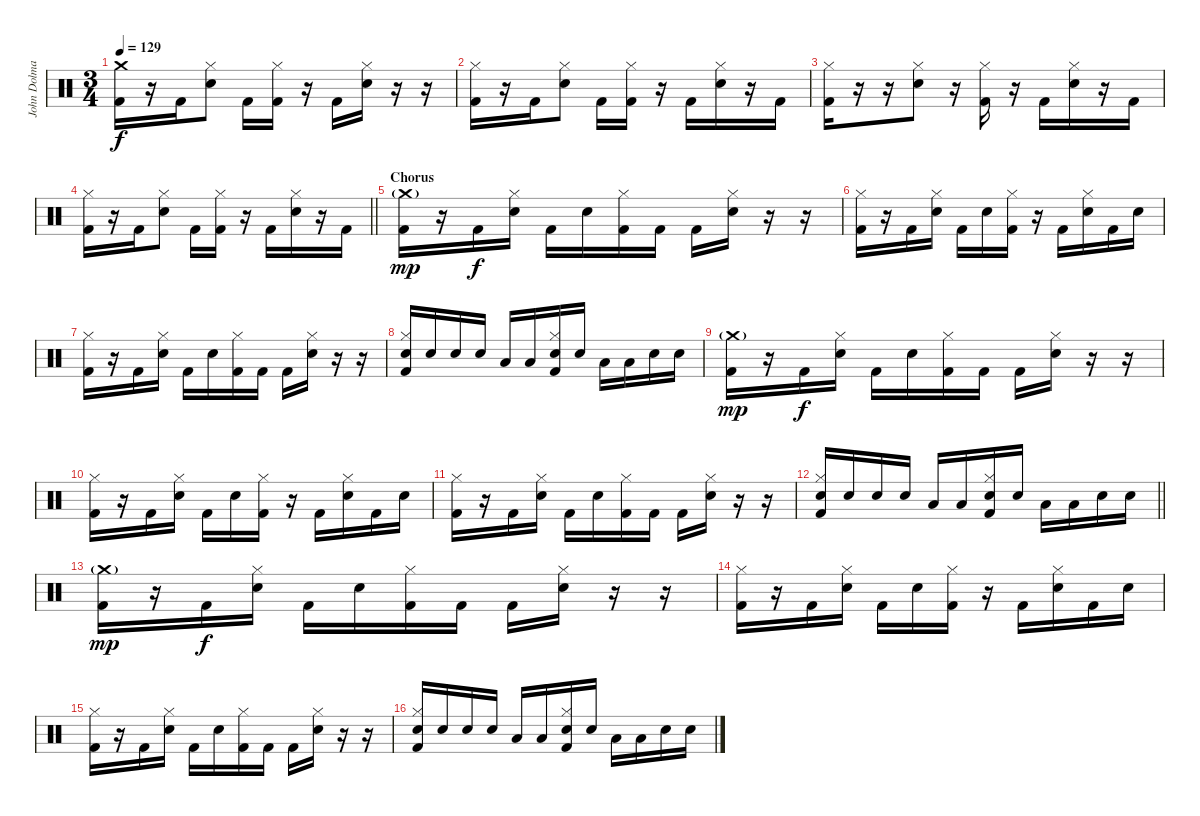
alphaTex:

\track ("John Dolmayan" "John Dolma") {instrument percussion}
\staff {score}
\articulation defaults
\ts (3 4)
\tempo 129
\clef neutral
\ks c
("Crash medium (hit)" "Kick (hit) 2").16{dy f} r.16 "Kick (hit) 2".16 ("Hi-Hat (closed)" "Electric Snare (hit)").8 "Kick (hit) 2".16 ("Hi-Hat (closed)" "Kick (hit) 2").16 r.16 "Kick (hit) 2".16 ("Hi-Hat (closed)" "Electric Snare (hit)").16 r.16 r.16 |
("Hi-Hat (closed)" "Kick (hit) 2").16 r.16 "Kick (hit) 2".16 ("Hi-Hat (closed)" "Electric Snare (hit)").8 "Kick (hit) 2".16 ("Hi-Hat (closed)" "Kick (hit) 2").16 r.16 "Kick (hit) 2".16 ("Hi-Hat (closed)" "Electric Snare (hit)").16 r.16 "Kick (hit) 2".16 |
("Hi-Hat (closed)" "Kick (hit) 2").16 r.16 r.16 ("Hi-Hat (closed)" "Electric Snare (hit)").8 r.16 ("Hi-Hat (closed)" "Kick (hit) 2").16 r.16 "Kick (hit) 2".16 ("Hi-Hat (closed)" "Electric Snare (hit)").16 r.16 "Kick (hit) 2".16 |
\barLineRight lightlight
("Hi-Hat (closed)" "Kick (hit) 2").16 r.16 "Kick (hit) 2".16 ("Hi-Hat (closed)" "Electric Snare (hit)").8 "Kick (hit) 2".16 ("Hi-Hat (closed)" "Kick (hit) 2").16 r.16 "Kick (hit) 2".16 ("Hi-Hat (closed)" "Electric Snare (hit)").16 r.16 "Kick (hit) 2".16 |
\section ("" "Chorus")
("Crash medium (hit)"{g} "Kick (hit) 2").16{dy mp} r.16 "Kick (hit) 2".16{dy f} ("Hi-Hat (closed)" "Electric Snare (hit)").16 "Kick (hit) 2".16 "Electric Snare (hit)".16 ("Hi-Hat (closed)" "Kick (hit) 2").16 "Kick (hit) 2".16 "Kick (hit) 2".16 ("Hi-Hat (closed)" "Electric Snare (hit)").16 r.16 r.16 |
("Hi-Hat (closed)" "Kick (hit) 2").16 r.16 "Kick (hit) 2".16 ("Hi-Hat (closed)" "Electric Snare (hit)").16 "Kick (hit) 2".16 "Electric Snare (hit)".16 ("Hi-Hat (closed)" "Kick (hit) 2").16 r.16 "Kick (hit) 2".16 ("Hi-Hat (closed)" "Electric Snare (hit)").16 "Kick (hit) 2".16 "Electric Snare (hit)".16 |
("Hi-Hat (closed)" "Kick (hit) 2").16 r.16 "Kick (hit) 2".16 ("Hi-Hat (closed)" "Electric Snare (hit)").16 "Kick (hit) 2".16 "Electric Snare (hit)".16 ("Hi-Hat (closed)" "Kick (hit) 2").16 "Kick (hit) 2".16 "Kick (hit) 2".16 ("Hi-Hat (closed)" "Electric Snare (hit)").16 r.16 r.16 |
("Hi-Hat (closed)" "Electric Snare (hit)" "Kick (hit) 2").16 "Electric Snare (hit)".16 "Electric Snare (hit)".16 "Electric Snare (hit)".16 "Low Tom (hit)".16 "Low Tom (hit)".16 ("Hi-Hat (closed)" "Electric Snare (hit)" "Kick (hit) 2").16 "Electric Snare (hit)".16 "Low Tom (hit)".16 "Low Tom (hit)".16 "Electric Snare (hit)".16 "Electric Snare (hit)".16 |
("Crash medium (hit)"{g} "Kick (hit) 2").16{dy mp} r.16 "Kick (hit) 2".16{dy f} ("Hi-Hat (closed)" "Electric Snare (hit)").16 "Kick (hit) 2".16 "Electric Snare (hit)".16 ("Hi-Hat (closed)" "Kick (hit) 2").16 "Kick (hit) 2".16 "Kick (hit) 2".16 ("Hi-Hat (closed)" "Electric Snare (hit)").16 r.16 r.16 |
("Hi-Hat (closed)" "Kick (hit) 2").16 r.16 "Kick (hit) 2".16 ("Hi-Hat (closed)" "Electric Snare (hit)").16 "Kick (hit) 2".16 "Electric Snare (hit)".16 ("Hi-Hat (closed)" "Kick (hit) 2").16 r.16 "Kick (hit) 2".16 ("Hi-Hat (closed)" "Electric Snare (hit)").16 "Kick (hit) 2".16 "Electric Snare (hit)".16 |
("Hi-Hat (closed)" "Kick (hit) 2").16 r.16 "Kick (hit) 2".16 ("Hi-Hat (closed)" "Electric Snare (hit)").16 "Kick (hit) 2".16 "Electric Snare (hit)".16 ("Hi-Hat (closed)" "Kick (hit) 2").16 "Kick (hit) 2".16 "Kick (hit) 2".16 ("Hi-Hat (closed)" "Electric Snare (hit)").16 r.16 r.16 |
\barLineRight lightlight
("Hi-Hat (closed)" "Electric Snare (hit)" "Kick (hit) 2").16 "Electric Snare (hit)".16 "Electric Snare (hit)".16 "Electric Snare (hit)".16 "Low Tom (hit)".16 "Low Tom (hit)".16 ("Hi-Hat (closed)" "Electric Snare (hit)" "Kick (hit) 2").16 "Electric Snare (hit)".16 "Low Tom (hit)".16 "Low Tom (hit)".16 "Electric Snare (hit)".16 "Electric Snare (hit)".16 |
("Crash medium (hit)"{g} "Kick (hit) 2").16{dy mp} r.16 "Kick (hit) 2".16{dy f} ("Hi-Hat (closed)" "Electric Snare (hit)").16 "Kick (hit) 2".16 "Electric Snare (hit)".16 ("Hi-Hat (closed)" "Kick (hit) 2").16 "Kick (hit) 2".16 "Kick (hit) 2".16 ("Hi-Hat (closed)" "Electric Snare (hit)").16 r.16 r.16 |
("Hi-Hat (closed)" "Kick (hit) 2").16 r.16 "Kick (hit) 2".16 ("Hi-Hat (closed)" "Electric Snare (hit)").16 "Kick (hit) 2".16 "Electric Snare (hit)".16 ("Hi-Hat (closed)" "Kick (hit) 2").16 r.16 "Kick (hit) 2".16 ("Hi-Hat (closed)" "Electric Snare (hit)").16 "Kick (hit) 2".16 "Electric Snare (hit)".16 |
("Hi-Hat (closed)" "Kick (hit) 2").16 r.16 "Kick (hit) 2".16 ("Hi-Hat (closed)" "Electric Snare (hit)").16 "Kick (hit) 2".16 "Electric Snare (hit)".16 ("Hi-Hat (closed)" "Kick (hit) 2").16 "Kick (hit) 2".16 "Kick (hit) 2".16 ("Hi-Hat (closed)" "Electric Snare (hit)").16 r.16 r.16 |
("Hi-Hat (closed)" "Electric Snare (hit)" "Kick (hit) 2").16 "Electric Snare (hit)".16 "Electric Snare (hit)".16 "Electric Snare (hit)".16 "Low Tom (hit)".16 "Low Tom (hit)".16 ("Hi-Hat (closed)" "Electric Snare (hit)" "Kick (hit) 2").16 "Electric Snare (hit)".16 "Low Tom (hit)".16 "Low Tom (hit)".16 "Electric Snare (hit)".16 "Electric Snare (hit)".16
